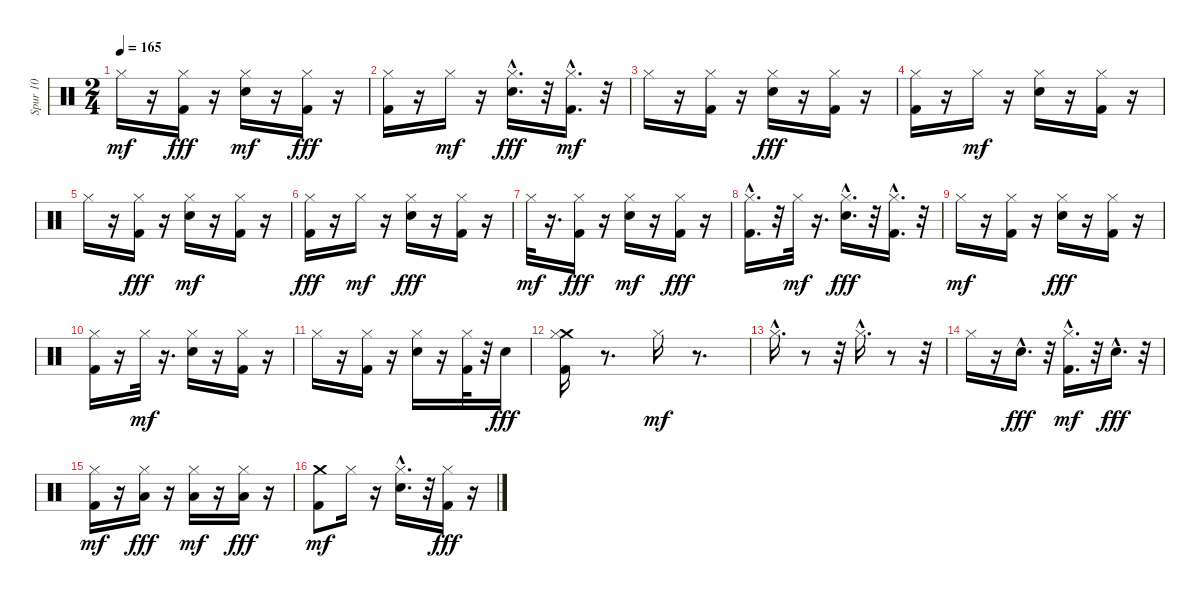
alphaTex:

\track ("Spur 10" "Spur 10") {instrument percussion}
\staff {score}
\articulation defaults
\ts (2 4)
\tempo 165
\clef neutral
\ks c "Hi-Hat (closed)".16{dy mf}
r.16 ("Hi-Hat (closed)" "Kick (hit) 2").16{dy fff} r.16 ("Electric Snare (hit)" "Hi-Hat (closed)").16{dy mf} r.16 ("Hi-Hat (closed)" "Kick (hit) 2").16{dy fff} r.16 |
("Hi-Hat (closed)" "Kick (hit) 2").16 r.16 "Hi-Hat (closed)".16{dy mf} r.16 ("Hi-Hat (closed)" "Electric Snare (hit)"{hac}).16{d dy fff} r.32 ("Kick (hit) 2"{hac} "Hi-Hat (closed)").16{d dy mf} r.32 |
"Hi-Hat (closed)".16 r.16 ("Kick (hit) 2" "Hi-Hat (closed)").16 r.16 ("Hi-Hat (closed)" "Electric Snare (hit)").16{dy fff} r.16 ("Hi-Hat (closed)" "Kick (hit) 2").16 r.16 |
("Hi-Hat (closed)" "Kick (hit) 2").16 r.16 "Hi-Hat (closed)".16{dy mf} r.16 ("Electric Snare (hit)" "Hi-Hat (closed)").16 r.16 ("Kick (hit) 2" "Hi-Hat (closed)").16 r.16 |
"Hi-Hat (closed)".16 r.16 ("Hi-Hat (closed)" "Kick (hit) 2").16{dy fff} r.16 ("Electric Snare (hit)" "Hi-Hat (closed)").16{dy mf} r.16 ("Kick (hit) 2" "Hi-Hat (closed)").16 r.16 |
("Hi-Hat (closed)" "Kick (hit) 2").16{dy fff} r.16 "Hi-Hat (closed)".16{dy mf} r.16 ("Hi-Hat (closed)" "Electric Snare (hit)").16{dy fff} r.16 ("Hi-Hat (closed)" "Kick (hit) 2").16 r.16 |
"Hi-Hat (closed)".32{dy mf} r.16{d} ("Hi-Hat (closed)" "Kick (hit) 2").16{dy fff} r.16 ("Electric Snare (hit)" "Hi-Hat (closed)").16{dy mf} r.16 ("Hi-Hat (closed)" "Kick (hit) 2").16{dy fff} r.16 |
("Hi-Hat (closed)" "Kick (hit) 2"{hac}).16{d} r.32 "Hi-Hat (closed)".32{dy mf} r.16{d} ("Hi-Hat (closed)" "Electric Snare (hit)"{hac}).16{d dy fff} r.32 ("Hi-Hat (closed)" "Kick (hit) 2"{hac}).16{d} r.32 |
"Hi-Hat (closed)".16{dy mf} r.16 ("Kick (hit) 2" "Hi-Hat (closed)").16 r.16 ("Hi-Hat (closed)" "Electric Snare (hit)").16{dy fff} r.16 ("Hi-Hat (closed)" "Kick (hit) 2").16 r.16 |
("Hi-Hat (closed)" "Kick (hit) 2").16 r.16 "Hi-Hat (closed)".32{dy mf} r.16{d} ("Electric Snare (hit)" "Hi-Hat (closed)").16 r.16 ("Kick (hit) 2" "Hi-Hat (closed)").16 r.16 |
"Hi-Hat (closed)".16 r.16 ("Kick (hit) 2" "Hi-Hat (closed)").16 r.16 ("Electric Snare (hit)" "Hi-Hat (closed)").16 r.16 ("Kick (hit) 2" "Hi-Hat (closed)").32 r.32 "Electric Snare (hit)".16{dy fff} |
("Crash medium (hit)" "Hi-Hat (closed)" "Kick (hit) 2").16 r.8{d} "Hi-Hat (closed)".16{dy mf} r.8{d} |
"Hi-Hat (closed)"{hac}.16{d} r.8 r.32 "Hi-Hat (closed)"{hac}.16{d} r.8 r.32 |
"Hi-Hat (closed)".16 r.16 "Electric Snare (hit)"{hac}.16{d dy fff} r.32 ("Kick (hit) 2"{hac} "Hi-Hat (closed)"{hac}).16{d dy mf} r.32 "Electric Snare (hit)"{hac}.16{d dy fff} r.32 |
("Kick (hit) 2" "Hi-Hat (closed)").16{dy mf} r.16 ("Hi-Hat (closed)" "Low Tom (hit)").16{dy fff} r.16 ("Low Tom (hit)" "Hi-Hat (closed)").16{dy mf} r.16 ("Hi-Hat (closed)" "Low Tom (hit)").16{dy fff} r.16 |
("Kick (hit) 2" "Crash medium (hit)").8{dy mf} "Hi-Hat (closed)".16 r.16 ("Electric Snare (hit)"{hac} "Hi-Hat (closed)").16{d} r.32 ("Hi-Hat (closed)" "Kick (hit) 2").16{dy fff} r.16
